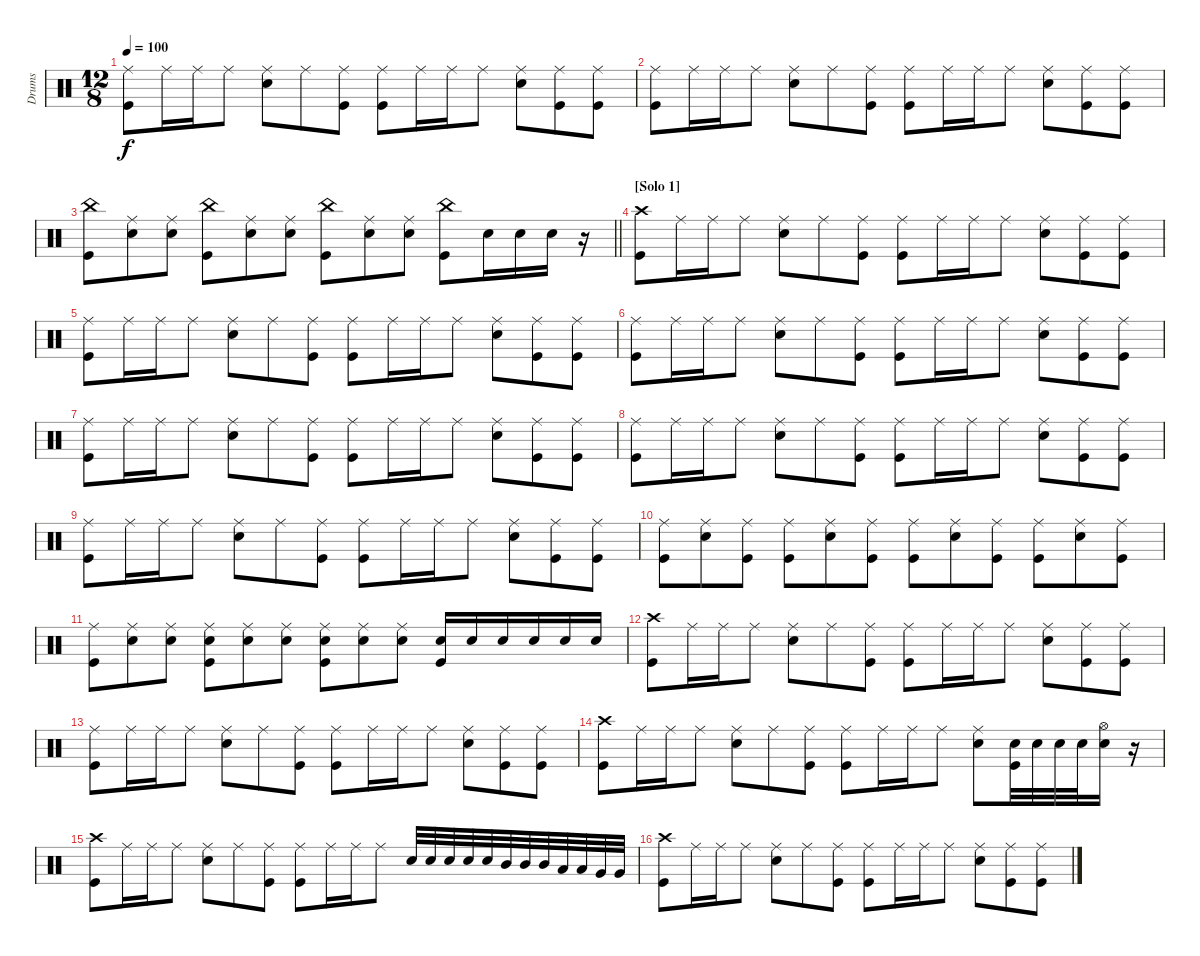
\track ("Drums" "Drums") {instrument percussion}
\staff {score}
\articulation defaults
\ts (12 8)
\tempo 100
\clef neutral
\ks c
("Ride (middle)" "Kick (hit)").8{dy f} "Ride (middle)".16 "Ride (middle)".16 "Ride (middle)".8 ("Ride (middle)" "Electric Snare (hit)").8 "Ride (middle)".8 ("Ride (middle)" "Kick (hit)").8 ("Ride (middle)" "Kick (hit)").8 "Ride (middle)".16 "Ride (middle)".16 "Ride (middle)".8 ("Ride (middle)" "Electric Snare (hit)").8 ("Ride (middle)" "Kick (hit)").8 ("Ride (middle)" "Kick (hit)").8 |
("Ride (middle)" "Kick (hit)").8 "Ride (middle)".16 "Ride (middle)".16 "Ride (middle)".8 ("Ride (middle)" "Electric Snare (hit)").8 "Ride (middle)".8 ("Ride (middle)" "Kick (hit)").8 ("Ride (middle)" "Kick (hit)").8 "Ride (middle)".16 "Ride (middle)".16 "Ride (middle)".8 ("Ride (middle)" "Electric Snare (hit)").8 ("Ride (middle)" "Kick (hit)").8 ("Ride (middle)" "Kick (hit)").8 |
\barLineRight lightlight
("China (hit)" "Kick (hit)").8 ("Ride (middle)" "Electric Snare (hit)").8 ("Ride (middle)" "Electric Snare (hit)").8 ("China (hit)" "Kick (hit)").8 ("Ride (middle)" "Electric Snare (hit)").8 ("Ride (middle)" "Electric Snare (hit)").8 ("China (hit)" "Kick (hit)").8 ("Ride (middle)" "Electric Snare (hit)").8 ("Ride (middle)" "Electric Snare (hit)").8 ("China (hit)" "Kick (hit)").8 "Electric Snare (hit)".16 "Electric Snare (hit)".16 "Electric Snare (hit)".16 r.16 |
\section ("" "[Solo 1]")
("Crash high (hit)" "Kick (hit)").8 "Ride (middle)".16 "Ride (middle)".16 "Ride (middle)".8 ("Ride (middle)" "Electric Snare (hit)").8 "Ride (middle)".8 ("Ride (middle)" "Kick (hit)").8 ("Ride (middle)" "Kick (hit)").8 "Ride (middle)".16 "Ride (middle)".16 "Ride (middle)".8 ("Ride (middle)" "Electric Snare (hit)").8 ("Ride (middle)" "Kick (hit)").8 ("Ride (middle)" "Kick (hit)").8 |
("Ride (middle)" "Kick (hit)").8 "Ride (middle)".16 "Ride (middle)".16 "Ride (middle)".8 ("Ride (middle)" "Electric Snare (hit)").8 "Ride (middle)".8 ("Ride (middle)" "Kick (hit)").8 ("Ride (middle)" "Kick (hit)").8 "Ride (middle)".16 "Ride (middle)".16 "Ride (middle)".8 ("Ride (middle)" "Electric Snare (hit)").8 ("Ride (middle)" "Kick (hit)").8 ("Ride (middle)" "Kick (hit)").8 |
("Ride (middle)" "Kick (hit)").8 "Ride (middle)".16 "Ride (middle)".16 "Ride (middle)".8 ("Ride (middle)" "Electric Snare (hit)").8 "Ride (middle)".8 ("Ride (middle)" "Kick (hit)").8 ("Ride (middle)" "Kick (hit)").8 "Ride (middle)".16 "Ride (middle)".16 "Ride (middle)".8 ("Ride (middle)" "Electric Snare (hit)").8 ("Ride (middle)" "Kick (hit)").8 ("Ride (middle)" "Kick (hit)").8 |
("Ride (middle)" "Kick (hit)").8 "Ride (middle)".16 "Ride (middle)".16 "Ride (middle)".8 ("Ride (middle)" "Electric Snare (hit)").8 "Ride (middle)".8 ("Ride (middle)" "Kick (hit)").8 ("Ride (middle)" "Kick (hit)").8 "Ride (middle)".16 "Ride (middle)".16 "Ride (middle)".8 ("Ride (middle)" "Electric Snare (hit)").8 ("Ride (middle)" "Kick (hit)").8 ("Ride (middle)" "Kick (hit)").8 |
("Ride (middle)" "Kick (hit)").8 "Ride (middle)".16 "Ride (middle)".16 "Ride (middle)".8 ("Ride (middle)" "Electric Snare (hit)").8 "Ride (middle)".8 ("Ride (middle)" "Kick (hit)").8 ("Ride (middle)" "Kick (hit)").8 "Ride (middle)".16 "Ride (middle)".16 "Ride (middle)".8 ("Ride (middle)" "Electric Snare (hit)").8 ("Ride (middle)" "Kick (hit)").8 ("Ride (middle)" "Kick (hit)").8 |
("Ride (middle)" "Kick (hit)").8 "Ride (middle)".16 "Ride (middle)".16 "Ride (middle)".8 ("Ride (middle)" "Electric Snare (hit)").8 "Ride (middle)".8 ("Ride (middle)" "Kick (hit)").8 ("Ride (middle)" "Kick (hit)").8 "Ride (middle)".16 "Ride (middle)".16 "Ride (middle)".8 ("Ride (middle)" "Electric Snare (hit)").8 ("Ride (middle)" "Kick (hit)").8 ("Ride (middle)" "Kick (hit)").8 |
("Ride (middle)" "Kick (hit)").8 ("Ride (middle)" "Electric Snare (hit)").8 ("Ride (middle)" "Kick (hit)").8 ("Ride (middle)" "Kick (hit)").8 ("Ride (middle)" "Electric Snare (hit)").8 ("Ride (middle)" "Kick (hit)").8 ("Ride (middle)" "Kick (hit)").8 ("Ride (middle)" "Electric Snare (hit)").8 ("Ride (middle)" "Kick (hit)").8 ("Ride (middle)" "Kick (hit)").8 ("Ride (middle)" "Electric Snare (hit)").8 ("Ride (middle)" "Kick (hit)").8 |
("Ride (middle)" "Kick (hit)").8 ("Ride (middle)" "Electric Snare (hit)").8 ("Ride (middle)" "Electric Snare (hit)").8 ("Ride (middle)" "Electric Snare (hit)" "Kick (hit)").8 ("Ride (middle)" "Electric Snare (hit)").8 ("Ride (middle)" "Electric Snare (hit)").8 ("Ride (middle)" "Electric Snare (hit)" "Kick (hit)").8 ("Ride (middle)" "Electric Snare (hit)").8 ("Ride (middle)" "Electric Snare (hit)").8 ("Electric Snare (hit)" "Kick (hit)").16 "Electric Snare (hit)".16 "Electric Snare (hit)".16 "Electric Snare (hit)".16 "Electric Snare (hit)".16 "Electric Snare (hit)".16 |
("Crash high (hit)" "Kick (hit)").8 "Ride (middle)".16 "Ride (middle)".16 "Ride (middle)".8 ("Ride (middle)" "Electric Snare (hit)").8 "Ride (middle)".8 ("Ride (middle)" "Kick (hit)").8 ("Ride (middle)" "Kick (hit)").8 "Ride (middle)".16 "Ride (middle)".16 "Ride (middle)".8 ("Ride (middle)" "Electric Snare (hit)").8 ("Ride (middle)" "Kick (hit)").8 ("Ride (middle)" "Kick (hit)").8 |
("Ride (middle)" "Kick (hit)").8 "Ride (middle)".16 "Ride (middle)".16 "Ride (middle)".8 ("Ride (middle)" "Electric Snare (hit)").8 "Ride (middle)".8 ("Ride (middle)" "Kick (hit)").8 ("Ride (middle)" "Kick (hit)").8 "Ride (middle)".16 "Ride (middle)".16 "Ride (middle)".8 ("Ride (middle)" "Electric Snare (hit)").8 ("Ride (middle)" "Kick (hit)").8 ("Ride (middle)" "Kick (hit)").8 |
("Crash high (hit)" "Kick (hit)").8 "Ride (middle)".16 "Ride (middle)".16 "Ride (middle)".8 ("Ride (middle)" "Electric Snare (hit)").8 "Ride (middle)".8 ("Ride (middle)" "Kick (hit)").8 ("Ride (middle)" "Kick (hit)").8 "Ride (middle)".16 "Ride (middle)".16 "Ride (middle)".8 ("Ride (middle)" "Electric Snare (hit)").8 ("Electric Snare (hit)" "Kick (hit)").32 "Electric Snare (hit)".32 "Electric Snare (hit)".32 "Electric Snare (hit)".32 ("Hi-Hat (open)" "Electric Snare (hit)").16 r.16 |
("Crash high (hit)" "Kick (hit)").8 "Ride (middle)".16 "Ride (middle)".16 "Ride (middle)".8 ("Ride (middle)" "Electric Snare (hit)").8 "Ride (middle)".8 ("Ride (middle)" "Kick (hit)").8 ("Ride (middle)" "Kick (hit)").8 "Ride (middle)".16 "Ride (middle)".16 "Ride (middle)".8 "Electric Snare (hit)".32 "Electric Snare (hit)".32 "Electric Snare (hit)".32 "Electric Snare (hit)".32 "Electric Snare (hit)".32 "Mid Tom (hit)".32 "Mid Tom (hit)".32 "Mid Tom (hit)".32 "Low Tom (hit)".32 "Low Tom (hit)".32 "Very Low Tom (hit)".32 "Very Low Tom (hit)".32 |
("Crash high (hit)" "Kick (hit)").8 "Ride (middle)".16 "Ride (middle)".16 "Ride (middle)".8 ("Ride (middle)" "Electric Snare (hit)").8 "Ride (middle)".8 ("Ride (middle)" "Kick (hit)").8 ("Ride (middle)" "Kick (hit)").8 "Ride (middle)".16 "Ride (middle)".16 "Ride (middle)".8 ("Ride (middle)" "Electric Snare (hit)").8 ("Ride (middle)" "Kick (hit)").8 ("Ride (middle)" "Kick (hit)").8
